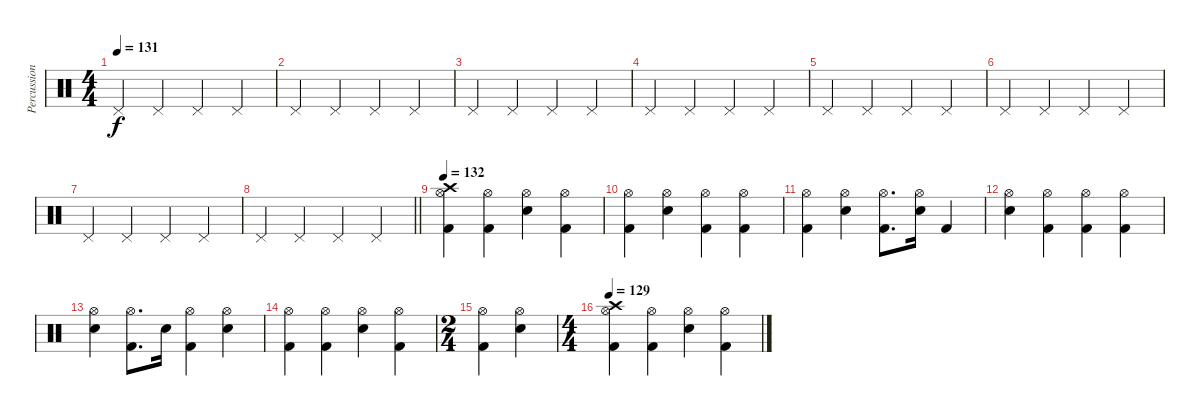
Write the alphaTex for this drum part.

\track ("Percussion" "Percussion") {instrument percussion}
\staff {score}
\articulation defaults
\ts (4 4)
\tempo 131
\clef neutral
\ks c "Pedal Hi-Hat (hit)".4{dy f} "Pedal Hi-Hat (hit)".4 "Pedal Hi-Hat (hit)".4 "Pedal Hi-Hat (hit)".4
|
"Pedal Hi-Hat (hit)".4 "Pedal Hi-Hat (hit)".4 "Pedal Hi-Hat (hit)".4 "Pedal Hi-Hat (hit)".4 |
"Pedal Hi-Hat (hit)".4 "Pedal Hi-Hat (hit)".4 "Pedal Hi-Hat (hit)".4 "Pedal Hi-Hat (hit)".4 |
"Pedal Hi-Hat (hit)".4 "Pedal Hi-Hat (hit)".4 "Pedal Hi-Hat (hit)".4 "Pedal Hi-Hat (hit)".4 |
"Pedal Hi-Hat (hit)".4 "Pedal Hi-Hat (hit)".4 "Pedal Hi-Hat (hit)".4 "Pedal Hi-Hat (hit)".4 |
"Pedal Hi-Hat (hit)".4 "Pedal Hi-Hat (hit)".4 "Pedal Hi-Hat (hit)".4 "Pedal Hi-Hat (hit)".4 |
"Pedal Hi-Hat (hit)".4 "Pedal Hi-Hat (hit)".4 "Pedal Hi-Hat (hit)".4 "Pedal Hi-Hat (hit)".4 |
\barLineRight lightlight "Pedal Hi-Hat (hit)".4 "Pedal Hi-Hat (hit)".4 "Pedal Hi-Hat (hit)".4 "Pedal Hi-Hat (hit)".4
|
\tempo 132
("Hi-Hat (open)" "Crash high (hit)" "Kick (hit) 2").4 ("Hi-Hat (open)" "Kick (hit) 2").4 ("Hi-Hat (open)" "Electric Snare (hit)").4 ("Hi-Hat (open)" "Kick (hit) 2").4 |
("Hi-Hat (open)" "Kick (hit) 2").4 ("Hi-Hat (open)" "Electric Snare (hit)").4 ("Hi-Hat (open)" "Kick (hit) 2").4 ("Hi-Hat (open)" "Kick (hit) 2").4 |
("Hi-Hat (open)" "Kick (hit) 2").4 ("Hi-Hat (open)" "Electric Snare (hit)").4 ("Hi-Hat (open)" "Kick (hit) 2").8{d} ("Hi-Hat (open)" "Electric Snare (hit)").16 "Kick (hit) 2".4 |
("Hi-Hat (open)" "Electric Snare (hit)").4 ("Hi-Hat (open)" "Kick (hit) 2").4 ("Hi-Hat (open)" "Kick (hit) 2").4 ("Hi-Hat (open)" "Kick (hit) 2").4 |
("Hi-Hat (open)" "Electric Snare (hit)").4 ("Hi-Hat (open)" "Kick (hit) 2").8{d} "Electric Snare (hit)".16 ("Hi-Hat (open)" "Kick (hit) 2").4 ("Hi-Hat (open)" "Electric Snare (hit)").4 |
("Hi-Hat (open)" "Kick (hit) 2").4 ("Hi-Hat (open)" "Kick (hit) 2").4 ("Hi-Hat (open)" "Electric Snare (hit)").4 ("Hi-Hat (open)" "Kick (hit) 2").4 |
\ts (2 4)
("Hi-Hat (open)" "Kick (hit) 2").4 ("Hi-Hat (open)" "Electric Snare (hit)").4 |
\ts (4 4)
\tempo 129
("Hi-Hat (open)" "Crash high (hit)" "Kick (hit) 2").4 ("Hi-Hat (open)" "Kick (hit) 2").4 ("Hi-Hat (open)" "Electric Snare (hit)").4 ("Hi-Hat (open)" "Kick (hit) 2").4
